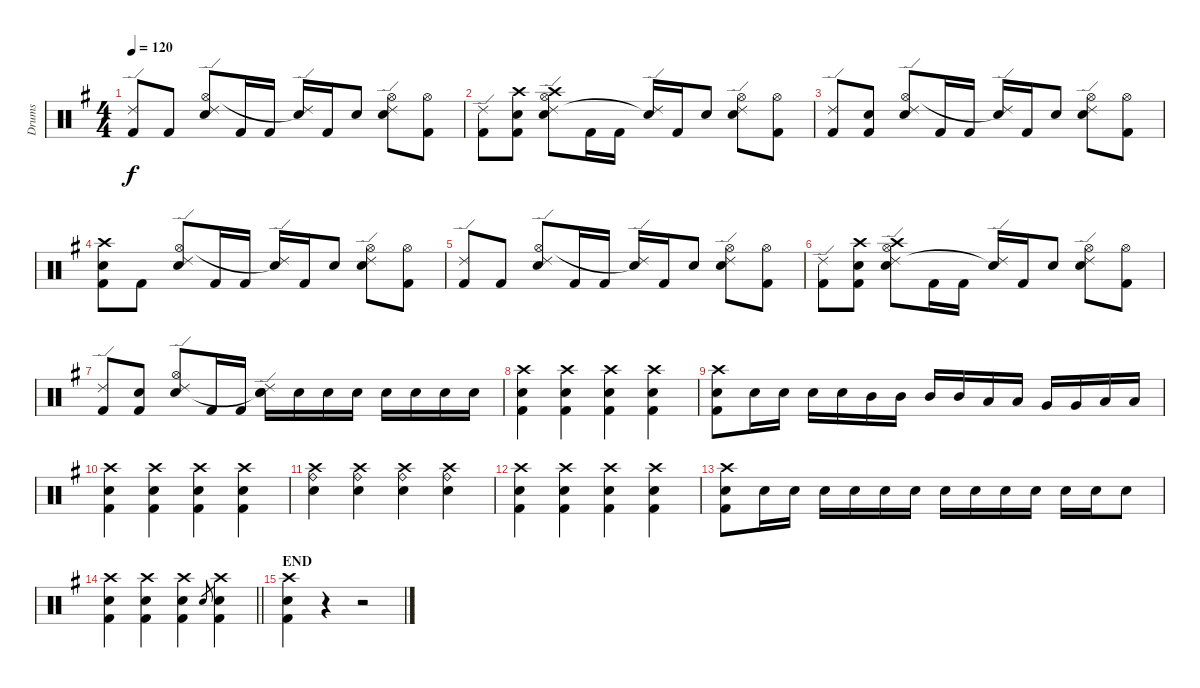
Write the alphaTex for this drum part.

\track ("Drums" "Drums") {instrument percussion}
\staff {score}
\articulation defaults
\ts (4 4)
\tempo 120
\clef neutral
\ks eminor
("Ride (edge) 2" "Kick (hit) 2").8{dy f} "Kick (hit) 2".8 ("Ride (edge) 2" "Hi-Hat (open)" "Electric Snare (hit)").8 "Kick (hit) 2".16 "Kick (hit) 2".16 ("Ride (edge) 2" "Snare (hit)"{t}).16 "Kick (hit) 2".16 "Electric Snare (hit)".8 ("Ride (edge) 2" "Hi-Hat (open)" "Electric Snare (hit)").8 ("Hi-Hat (open)" "Kick (hit) 2").8 |
("Ride (edge) 2" "Kick (hit) 2").8 ("Crash high (hit)" "Electric Snare (hit)" "Kick (hit) 2").8 ("Crash high (hit)" "Ride (edge) 2" "Hi-Hat (open)" "Electric Snare (hit)").8 "Kick (hit) 2".16 "Kick (hit) 2".16 ("Ride (edge) 2" "Snare (hit)"{t}).16 "Kick (hit) 2".16 "Electric Snare (hit)".8 ("Ride (edge) 2" "Hi-Hat (open)" "Electric Snare (hit)").8 ("Hi-Hat (open)" "Kick (hit) 2").8 |
("Ride (edge) 2" "Kick (hit) 2").8 ("Electric Snare (hit)" "Kick (hit) 2").8 ("Ride (edge) 2" "Hi-Hat (open)" "Electric Snare (hit)").8 "Kick (hit) 2".16 "Kick (hit) 2".16 ("Ride (edge) 2" "Snare (hit)"{t}).16 "Kick (hit) 2".16 "Electric Snare (hit)".8 ("Ride (edge) 2" "Hi-Hat (open)" "Electric Snare (hit)").8 ("Hi-Hat (open)" "Kick (hit) 2").8 |
("Crash high (hit)" "Electric Snare (hit)" "Kick (hit) 2").8 "Kick (hit) 2".8 ("Ride (edge) 2" "Hi-Hat (open)" "Electric Snare (hit)").8 "Kick (hit) 2".16 "Kick (hit) 2".16 ("Ride (edge) 2" "Snare (hit)"{t}).16 "Kick (hit) 2".16 "Electric Snare (hit)".8 ("Ride (edge) 2" "Hi-Hat (open)" "Electric Snare (hit)").8 ("Hi-Hat (open)" "Kick (hit) 2").8 |
("Ride (edge) 2" "Kick (hit) 2").8 "Kick (hit) 2".8 ("Ride (edge) 2" "Hi-Hat (open)" "Electric Snare (hit)").8 "Kick (hit) 2".16 "Kick (hit) 2".16 ("Ride (edge) 2" "Snare (hit)"{t}).16 "Kick (hit) 2".16 "Electric Snare (hit)".8 ("Ride (edge) 2" "Hi-Hat (open)" "Electric Snare (hit)").8 ("Hi-Hat (open)" "Kick (hit) 2").8 |
("Ride (edge) 2" "Kick (hit) 2").8 ("Crash high (hit)" "Electric Snare (hit)" "Kick (hit) 2").8 ("Crash high (hit)" "Ride (edge) 2" "Hi-Hat (open)" "Electric Snare (hit)").8 "Kick (hit) 2".16 "Kick (hit) 2".16 ("Ride (edge) 2" "Snare (hit)"{t}).16 "Kick (hit) 2".16 "Electric Snare (hit)".8 ("Ride (edge) 2" "Hi-Hat (open)" "Electric Snare (hit)").8 ("Hi-Hat (open)" "Kick (hit) 2").8 |
("Ride (edge) 2" "Kick (hit) 2").8 ("Electric Snare (hit)" "Kick (hit) 2").8 ("Ride (edge) 2" "Hi-Hat (open)" "Electric Snare (hit)").8 "Kick (hit) 2".16 "Kick (hit) 2".16 ("Ride (edge) 2" "Electric Snare (hit)" "Snare (hit)"{t}).16 "Electric Snare (hit)".16 "Electric Snare (hit)".16 "Electric Snare (hit)".16 "Electric Snare (hit)".16 "Electric Snare (hit)".16 "Electric Snare (hit)".16 "Electric Snare (hit)".16 |
("Crash high (hit)" "Electric Snare (hit)" "Kick (hit) 2").4 ("Crash high (hit)" "Electric Snare (hit)" "Kick (hit) 2").4 ("Crash high (hit)" "Electric Snare (hit)" "Kick (hit) 2").4 ("Crash high (hit)" "Electric Snare (hit)" "Kick (hit) 2").4 |
("Crash high (hit)" "Electric Snare (hit)" "Kick (hit) 2").8 "Electric Snare (hit)".16 "Electric Snare (hit)".16 "Electric Snare (hit)".16 "Electric Snare (hit)".16 "Mid Tom (hit)".16 "Mid Tom (hit)".16 "Mid Tom (hit)".16 "Mid Tom (hit)".16 "Low Tom (hit)".16 "Low Tom (hit)".16 "Very Low Tom (hit)".16 "Very Low Tom (hit)".16 "Low Floor Tom (hit)".16 "Low Floor Tom (hit)".16 |
("Crash high (hit)" "Electric Snare (hit)" "Kick (hit) 2").4 ("Crash high (hit)" "Electric Snare (hit)" "Kick (hit) 2").4 ("Crash high (hit)" "Electric Snare (hit)" "Kick (hit) 2").4 ("Crash high (hit)" "Electric Snare (hit)" "Kick (hit) 2").4 |
("Crash high (hit)" "Ride (bell)" "Electric Snare (hit)").4 ("Crash high (hit)" "Ride (bell)" "Electric Snare (hit)").4 ("Crash high (hit)" "Ride (bell)" "Electric Snare (hit)").4 ("Crash high (hit)" "Ride (bell)" "Electric Snare (hit)").4 |
("Crash high (hit)" "Electric Snare (hit)" "Kick (hit) 2").4 ("Crash high (hit)" "Electric Snare (hit)" "Kick (hit) 2").4 ("Crash high (hit)" "Electric Snare (hit)" "Kick (hit) 2").4 ("Crash high (hit)" "Electric Snare (hit)" "Kick (hit) 2").4 |
("Crash high (hit)" "Electric Snare (hit)" "Kick (hit) 2").8 "Electric Snare (hit)".16 "Electric Snare (hit)".16 "Electric Snare (hit)".16 "Electric Snare (hit)".16 "Electric Snare (hit)".16 "Electric Snare (hit)".16 "Electric Snare (hit)".16 "Electric Snare (hit)".16 "Electric Snare (hit)".16 "Electric Snare (hit)".16 "Electric Snare (hit)".16 "Electric Snare (hit)".16 "Electric Snare (hit)".8 |
\barLineRight lightlight
("Crash high (hit)" "Electric Snare (hit)" "Kick (hit) 2").4 ("Crash high (hit)" "Electric Snare (hit)" "Kick (hit) 2").4 ("Crash high (hit)" "Electric Snare (hit)" "Kick (hit) 2").4 "Electric Snare (hit)".8{gr} ("Crash high (hit)" "Electric Snare (hit)" "Kick (hit) 2").4 |
\section ("" "END")
("Crash high (hit)" "Electric Snare (hit)" "Kick (hit) 2").4 r.4 r.2
